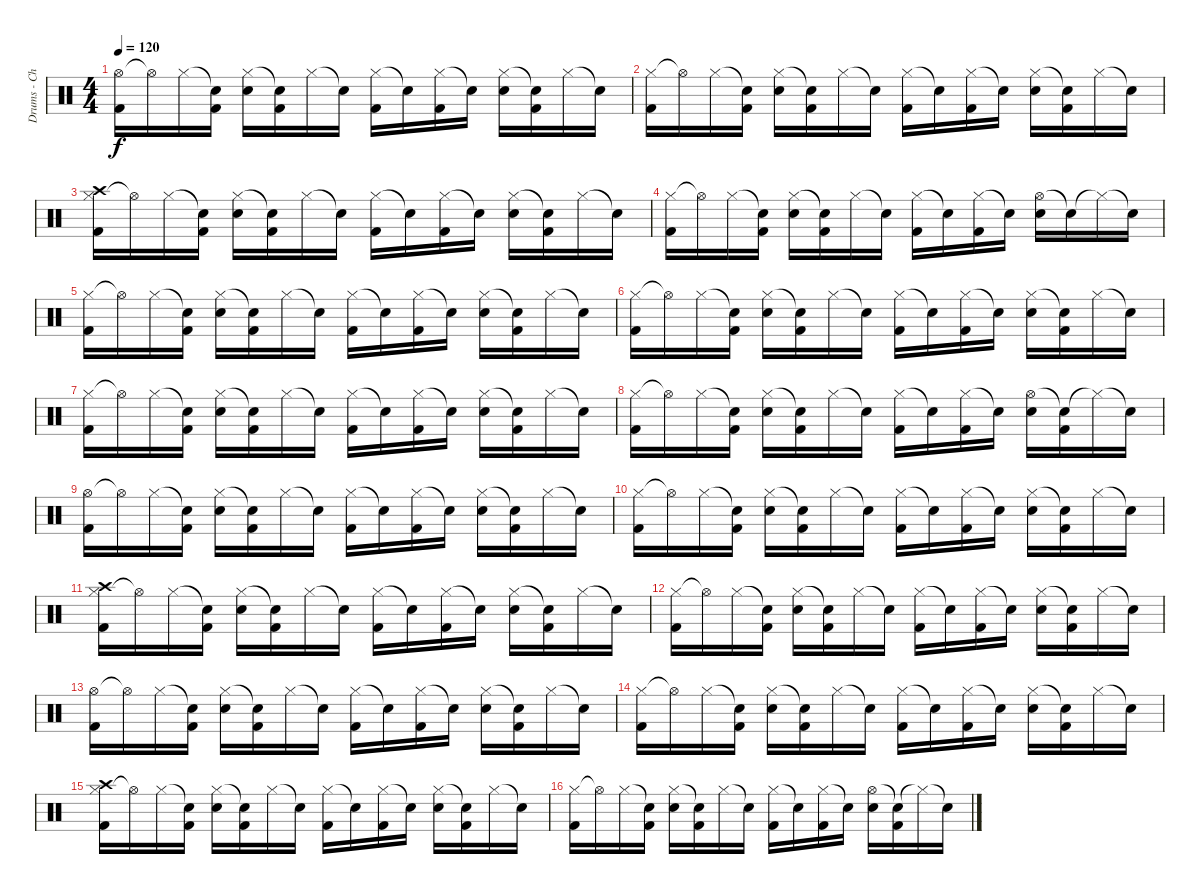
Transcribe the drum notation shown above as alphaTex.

\track ("Drums - Chad" "Drums - Ch") {instrument percussion}
\staff {score}
\articulation defaults
\ts (4 4)
\tempo 120
\clef neutral
\ks c
("Hi-Hat (open)" "Kick (hit) 2").16{dy f} "Hi-Hat (open)"{t}.16 "Hi-Hat (closed)".16 ("Snare (hit)"{t} "Kick (hit) 2").16 ("Hi-Hat (closed)" "Electric Snare (hit)").16 ("Snare (hit)"{t} "Kick (hit) 2").16 "Hi-Hat (closed)".16 "Snare (hit)"{t}.16 ("Hi-Hat (closed)" "Kick (hit) 2").16 "Snare (hit)"{t}.16 ("Hi-Hat (closed)" "Kick (hit) 2").16 "Snare (hit)"{t}.16 ("Hi-Hat (closed)" "Electric Snare (hit)").16 ("Snare (hit)"{t} "Kick (hit) 2").16 "Hi-Hat (closed)".16 "Snare (hit)"{t}.16 |
("Hi-Hat (closed)" "Kick (hit) 2").16 "Hi-Hat (open)"{t}.16 "Hi-Hat (closed)".16 ("Snare (hit)"{t} "Kick (hit) 2").16 ("Hi-Hat (closed)" "Electric Snare (hit)").16 ("Snare (hit)"{t} "Kick (hit) 2").16 "Hi-Hat (closed)".16 "Snare (hit)"{t}.16 ("Hi-Hat (closed)" "Kick (hit) 2").16 "Snare (hit)"{t}.16 ("Hi-Hat (closed)" "Kick (hit) 2").16 "Snare (hit)"{t}.16 ("Hi-Hat (closed)" "Electric Snare (hit)").16 ("Snare (hit)"{t} "Kick (hit) 2").16 "Hi-Hat (closed)".16 "Snare (hit)"{t}.16 |
("Hi-Hat (closed)" "Kick (hit) 2" "Crash high (hit)").16 "Hi-Hat (open)"{t}.16 "Hi-Hat (closed)".16 ("Snare (hit)"{t} "Kick (hit) 2").16 ("Hi-Hat (closed)" "Electric Snare (hit)").16 ("Snare (hit)"{t} "Kick (hit) 2").16 "Hi-Hat (closed)".16 "Snare (hit)"{t}.16 ("Hi-Hat (closed)" "Kick (hit) 2").16 "Snare (hit)"{t}.16 ("Hi-Hat (closed)" "Kick (hit) 2").16 "Snare (hit)"{t}.16 ("Hi-Hat (closed)" "Electric Snare (hit)").16 ("Snare (hit)"{t} "Kick (hit) 2").16 "Hi-Hat (closed)".16 "Snare (hit)"{t}.16 |
("Hi-Hat (closed)" "Kick (hit) 2").16 "Hi-Hat (open)"{t}.16 "Hi-Hat (closed)".16 ("Snare (hit)"{t} "Kick (hit) 2").16 ("Hi-Hat (closed)" "Electric Snare (hit)").16 ("Snare (hit)"{t} "Kick (hit) 2").16 "Hi-Hat (closed)".16 "Snare (hit)"{t}.16 ("Hi-Hat (closed)" "Kick (hit) 2").16 "Snare (hit)"{t}.16 ("Hi-Hat (closed)" "Kick (hit) 2").16 "Snare (hit)"{t}.16 ("Hi-Hat (open)" "Electric Snare (hit)").16 "Snare (hit)"{t}.16 "Hi-Hat (closed)"{t}.16 "Snare (hit)"{t}.16 |
("Hi-Hat (closed)" "Kick (hit) 2").16 "Hi-Hat (open)"{t}.16 "Hi-Hat (closed)".16 ("Snare (hit)"{t} "Kick (hit) 2").16 ("Hi-Hat (closed)" "Electric Snare (hit)").16 ("Snare (hit)"{t} "Kick (hit) 2").16 "Hi-Hat (closed)".16 "Snare (hit)"{t}.16 ("Hi-Hat (closed)" "Kick (hit) 2").16 "Snare (hit)"{t}.16 ("Hi-Hat (closed)" "Kick (hit) 2").16 "Snare (hit)"{t}.16 ("Hi-Hat (closed)" "Electric Snare (hit)").16 ("Snare (hit)"{t} "Kick (hit) 2").16 "Hi-Hat (closed)".16 "Snare (hit)"{t}.16 |
("Hi-Hat (closed)" "Kick (hit) 2").16 "Hi-Hat (open)"{t}.16 "Hi-Hat (closed)".16 ("Snare (hit)"{t} "Kick (hit) 2").16 ("Hi-Hat (closed)" "Electric Snare (hit)").16 ("Snare (hit)"{t} "Kick (hit) 2").16 "Hi-Hat (closed)".16 "Snare (hit)"{t}.16 ("Hi-Hat (closed)" "Kick (hit) 2").16 "Snare (hit)"{t}.16 ("Hi-Hat (closed)" "Kick (hit) 2").16 "Snare (hit)"{t}.16 ("Hi-Hat (closed)" "Electric Snare (hit)").16 ("Snare (hit)"{t} "Kick (hit) 2").16 "Hi-Hat (closed)".16 "Snare (hit)"{t}.16 |
("Hi-Hat (closed)" "Kick (hit) 2").16 "Hi-Hat (open)"{t}.16 "Hi-Hat (closed)".16 ("Snare (hit)"{t} "Kick (hit) 2").16 ("Hi-Hat (closed)" "Electric Snare (hit)").16 ("Snare (hit)"{t} "Kick (hit) 2").16 "Hi-Hat (closed)".16 "Snare (hit)"{t}.16 ("Hi-Hat (closed)" "Kick (hit) 2").16 "Snare (hit)"{t}.16 ("Hi-Hat (closed)" "Kick (hit) 2").16 "Snare (hit)"{t}.16 ("Hi-Hat (closed)" "Electric Snare (hit)").16 ("Snare (hit)"{t} "Kick (hit) 2").16 "Hi-Hat (closed)".16 "Snare (hit)"{t}.16 |
("Hi-Hat (closed)" "Kick (hit) 2").16 "Hi-Hat (open)"{t}.16 "Hi-Hat (closed)".16 ("Snare (hit)"{t} "Kick (hit) 2").16 ("Hi-Hat (closed)" "Electric Snare (hit)").16 ("Snare (hit)"{t} "Kick (hit) 2").16 "Hi-Hat (closed)".16 "Snare (hit)"{t}.16 ("Hi-Hat (closed)" "Kick (hit) 2").16 "Snare (hit)"{t}.16 ("Hi-Hat (closed)" "Kick (hit) 2").16 "Snare (hit)"{t}.16 ("Hi-Hat (open)" "Electric Snare (hit)").16 ("Snare (hit)"{t} "Kick (hit) 2").16 "Hi-Hat (closed)"{t}.16 "Snare (hit)"{t}.16 |
("Hi-Hat (open)" "Kick (hit) 2").16 "Hi-Hat (open)"{t}.16 "Hi-Hat (closed)".16 ("Snare (hit)"{t} "Kick (hit) 2").16 ("Hi-Hat (closed)" "Electric Snare (hit)").16 ("Snare (hit)"{t} "Kick (hit) 2").16 "Hi-Hat (closed)".16 "Snare (hit)"{t}.16 ("Hi-Hat (closed)" "Kick (hit) 2").16 "Snare (hit)"{t}.16 ("Hi-Hat (closed)" "Kick (hit) 2").16 "Snare (hit)"{t}.16 ("Hi-Hat (closed)" "Electric Snare (hit)").16 ("Snare (hit)"{t} "Kick (hit) 2").16 "Hi-Hat (closed)".16 "Snare (hit)"{t}.16 |
("Hi-Hat (closed)" "Kick (hit) 2").16 "Hi-Hat (open)"{t}.16 "Hi-Hat (closed)".16 ("Snare (hit)"{t} "Kick (hit) 2").16 ("Hi-Hat (closed)" "Electric Snare (hit)").16 ("Snare (hit)"{t} "Kick (hit) 2").16 "Hi-Hat (closed)".16 "Snare (hit)"{t}.16 ("Hi-Hat (closed)" "Kick (hit) 2").16 "Snare (hit)"{t}.16 ("Hi-Hat (closed)" "Kick (hit) 2").16 "Snare (hit)"{t}.16 ("Hi-Hat (closed)" "Electric Snare (hit)").16 ("Snare (hit)"{t} "Kick (hit) 2").16 "Hi-Hat (closed)".16 "Snare (hit)"{t}.16 |
("Hi-Hat (closed)" "Kick (hit) 2" "Crash high (hit)").16 "Hi-Hat (open)"{t}.16 "Hi-Hat (closed)".16 ("Snare (hit)"{t} "Kick (hit) 2").16 ("Hi-Hat (closed)" "Electric Snare (hit)").16 ("Snare (hit)"{t} "Kick (hit) 2").16 "Hi-Hat (closed)".16 "Snare (hit)"{t}.16 ("Hi-Hat (closed)" "Kick (hit) 2").16 "Snare (hit)"{t}.16 ("Hi-Hat (closed)" "Kick (hit) 2").16 "Snare (hit)"{t}.16 ("Hi-Hat (closed)" "Electric Snare (hit)").16 ("Snare (hit)"{t} "Kick (hit) 2").16 "Hi-Hat (closed)".16 "Snare (hit)"{t}.16 |
("Hi-Hat (closed)" "Kick (hit) 2").16 "Hi-Hat (open)"{t}.16 "Hi-Hat (closed)".16 ("Snare (hit)"{t} "Kick (hit) 2").16 ("Hi-Hat (closed)" "Electric Snare (hit)").16 ("Snare (hit)"{t} "Kick (hit) 2").16 "Hi-Hat (closed)".16 "Snare (hit)"{t}.16 ("Hi-Hat (closed)" "Kick (hit) 2").16 "Snare (hit)"{t}.16 ("Hi-Hat (closed)" "Kick (hit) 2").16 "Snare (hit)"{t}.16 ("Hi-Hat (closed)" "Electric Snare (hit)").16 ("Snare (hit)"{t} "Kick (hit) 2").16 "Hi-Hat (closed)".16 "Snare (hit)"{t}.16 |
("Hi-Hat (open)" "Kick (hit) 2").16 "Hi-Hat (open)"{t}.16 "Hi-Hat (closed)".16 ("Snare (hit)"{t} "Kick (hit) 2").16 ("Hi-Hat (closed)" "Electric Snare (hit)").16 ("Snare (hit)"{t} "Kick (hit) 2").16 "Hi-Hat (closed)".16 "Snare (hit)"{t}.16 ("Hi-Hat (closed)" "Kick (hit) 2").16 "Snare (hit)"{t}.16 ("Hi-Hat (closed)" "Kick (hit) 2").16 "Snare (hit)"{t}.16 ("Hi-Hat (closed)" "Electric Snare (hit)").16 ("Snare (hit)"{t} "Kick (hit) 2").16 "Hi-Hat (closed)".16 "Snare (hit)"{t}.16 |
("Hi-Hat (closed)" "Kick (hit) 2").16 "Hi-Hat (open)"{t}.16 "Hi-Hat (closed)".16 ("Snare (hit)"{t} "Kick (hit) 2").16 ("Hi-Hat (closed)" "Electric Snare (hit)").16 ("Snare (hit)"{t} "Kick (hit) 2").16 "Hi-Hat (closed)".16 "Snare (hit)"{t}.16 ("Hi-Hat (closed)" "Kick (hit) 2").16 "Snare (hit)"{t}.16 ("Hi-Hat (closed)" "Kick (hit) 2").16 "Snare (hit)"{t}.16 ("Hi-Hat (closed)" "Electric Snare (hit)").16 ("Snare (hit)"{t} "Kick (hit) 2").16 "Hi-Hat (closed)".16 "Snare (hit)"{t}.16 |
("Hi-Hat (closed)" "Kick (hit) 2" "Crash high (hit)").16 "Hi-Hat (open)"{t}.16 "Hi-Hat (closed)".16 ("Snare (hit)"{t} "Kick (hit) 2").16 ("Hi-Hat (closed)" "Electric Snare (hit)").16 ("Snare (hit)"{t} "Kick (hit) 2").16 "Hi-Hat (closed)".16 "Snare (hit)"{t}.16 ("Hi-Hat (closed)" "Kick (hit) 2").16 "Snare (hit)"{t}.16 ("Hi-Hat (closed)" "Kick (hit) 2").16 "Snare (hit)"{t}.16 ("Hi-Hat (closed)" "Electric Snare (hit)").16 ("Snare (hit)"{t} "Kick (hit) 2").16 "Hi-Hat (closed)".16 "Snare (hit)"{t}.16 |
("Hi-Hat (closed)" "Kick (hit) 2").16 "Hi-Hat (open)"{t}.16 "Hi-Hat (closed)".16 ("Snare (hit)"{t} "Kick (hit) 2").16 ("Hi-Hat (closed)" "Electric Snare (hit)").16 ("Snare (hit)"{t} "Kick (hit) 2").16 "Hi-Hat (closed)".16 "Snare (hit)"{t}.16 ("Hi-Hat (closed)" "Kick (hit) 2").16 "Snare (hit)"{t}.16 ("Hi-Hat (closed)" "Kick (hit) 2").16 "Snare (hit)"{t}.16 ("Hi-Hat (open)" "Electric Snare (hit)").16 ("Snare (hit)"{t} "Kick (hit) 2").16 "Hi-Hat (closed)"{t}.16 "Snare (hit)"{t}.16
